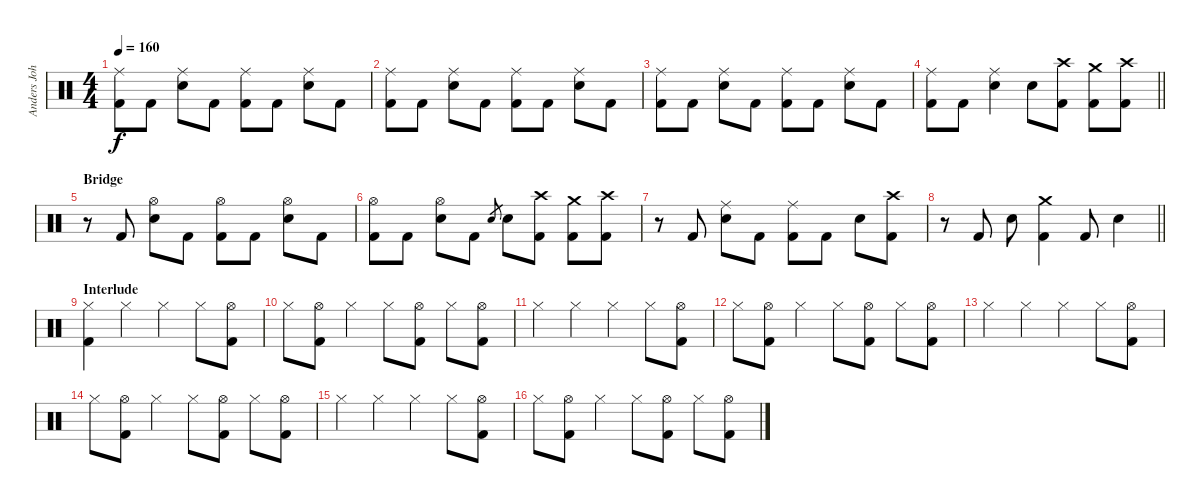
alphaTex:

\track ("Anders Johansson" "Anders Joh") {instrument percussion}
\staff {score}
\articulation defaults
\ts (4 4)
\tempo 160
\clef neutral
\ks c
("Ride (middle)" "Kick (hit) 2").8{dy f} "Kick (hit) 2".8 ("Ride (middle)" "Snare (hit) 2").8 "Kick (hit) 2".8 ("Ride (middle)" "Kick (hit) 2").8 "Kick (hit) 2".8 ("Ride (middle)" "Snare (hit) 2").8 "Kick (hit) 2".8 |
("Ride (middle)" "Kick (hit) 2").8 "Kick (hit) 2".8 ("Ride (middle)" "Snare (hit) 2").8 "Kick (hit) 2".8 ("Ride (middle)" "Kick (hit) 2").8 "Kick (hit) 2".8 ("Ride (middle)" "Snare (hit) 2").8 "Kick (hit) 2".8 |
("Ride (middle)" "Kick (hit) 2").8 "Kick (hit) 2".8 ("Ride (middle)" "Snare (hit) 2").8 "Kick (hit) 2".8 ("Ride (middle)" "Kick (hit) 2").8 "Kick (hit) 2".8 ("Ride (middle)" "Snare (hit) 2").8 "Kick (hit) 2".8 |
\barLineRight lightlight
("Ride (middle)" "Kick (hit) 2").8 "Kick (hit) 2".8 ("Ride (middle)" "Snare (hit) 2").4 "Snare (hit) 2".8 ("Crash high (hit)" "Kick (hit) 2").8 ("Crash medium (hit)" "Kick (hit) 2").8 ("Crash high (hit)" "Kick (hit) 2").8 |
\section ("" "Bridge")
r.8 "Kick (hit) 2".8 ("Hi-Hat (open)" "Snare (hit) 2").8 "Kick (hit) 2".8 ("Hi-Hat (open)" "Kick (hit) 2").8 "Kick (hit) 2".8 ("Hi-Hat (open)" "Snare (hit) 2").8 "Kick (hit) 2".8 |
("Hi-Hat (open)" "Kick (hit) 2").8 "Kick (hit) 2".8 ("Hi-Hat (open)" "Snare (hit) 2").8 "Kick (hit) 2".8 "Snare (hit) 2".8{gr} "Snare (hit) 2".8 ("Crash high (hit)" "Kick (hit) 2").8 ("Crash medium (hit)" "Kick (hit) 2").8 ("Crash high (hit)" "Kick (hit) 2").8 |
r.8 "Kick (hit) 2".8 ("Ride (middle)" "Snare (hit) 2").8 "Kick (hit) 2".8 ("Ride (middle)" "Kick (hit) 2").8 "Kick (hit) 2".8 "Snare (hit) 2".8 ("Crash high (hit)" "Kick (hit) 2").8 |
\barLineRight lightlight
r.8 "Kick (hit) 2".8 "Snare (hit) 2".8 ("Crash medium (hit)" "Kick (hit) 2").4 "Kick (hit) 2".8 "Snare (hit) 2".4 |
\section ("" "Interlude")
("Hi-Hat (closed)" "Kick (hit) 2").4 "Hi-Hat (closed)".4 "Hi-Hat (closed)".4 "Hi-Hat (closed)".8 ("Hi-Hat (open)" "Kick (hit) 2").8 |
"Hi-Hat (closed)".8 ("Hi-Hat (open)" "Kick (hit) 2").8 "Hi-Hat (closed)".4 "Hi-Hat (closed)".8 ("Hi-Hat (open)" "Kick (hit) 2").8 "Hi-Hat (closed)".8 ("Hi-Hat (open)" "Kick (hit) 2").8 |
"Hi-Hat (closed)".4 "Hi-Hat (closed)".4 "Hi-Hat (closed)".4 "Hi-Hat (closed)".8 ("Hi-Hat (open)" "Kick (hit) 2").8 |
"Hi-Hat (closed)".8 ("Hi-Hat (open)" "Kick (hit) 2").8 "Hi-Hat (closed)".4 "Hi-Hat (closed)".8 ("Hi-Hat (open)" "Kick (hit) 2").8 "Hi-Hat (closed)".8 ("Hi-Hat (open)" "Kick (hit) 2").8 |
"Hi-Hat (closed)".4 "Hi-Hat (closed)".4 "Hi-Hat (closed)".4 "Hi-Hat (closed)".8 ("Hi-Hat (open)" "Kick (hit) 2").8 |
"Hi-Hat (closed)".8 ("Hi-Hat (open)" "Kick (hit) 2").8 "Hi-Hat (closed)".4 "Hi-Hat (closed)".8 ("Hi-Hat (open)" "Kick (hit) 2").8 "Hi-Hat (closed)".8 ("Hi-Hat (open)" "Kick (hit) 2").8 |
"Hi-Hat (closed)".4 "Hi-Hat (closed)".4 "Hi-Hat (closed)".4 "Hi-Hat (closed)".8 ("Hi-Hat (open)" "Kick (hit) 2").8 |
"Hi-Hat (closed)".8 ("Hi-Hat (open)" "Kick (hit) 2").8 "Hi-Hat (closed)".4 "Hi-Hat (closed)".8 ("Hi-Hat (open)" "Kick (hit) 2").8 "Hi-Hat (closed)".8 ("Hi-Hat (open)" "Kick (hit) 2").8
